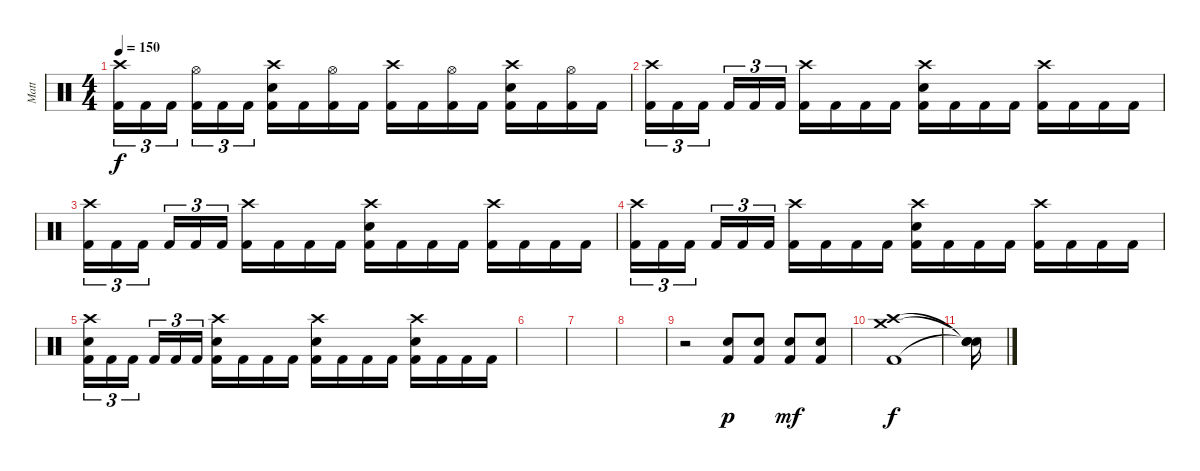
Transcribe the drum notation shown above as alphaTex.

\track ("Matt" "Matt") {instrument percussion}
\staff {score}
\articulation defaults
\ts (4 4)
\tempo 150
\clef neutral
\ks c
("Crash high (hit)" "Kick (hit) 2").16{tu (3 2) dy f} "Kick (hit) 2".16{tu (3 2)} "Kick (hit) 2".16{tu (3 2)} ("Hi-Hat (open)" "Kick (hit) 2").16{tu (3 2)} "Kick (hit) 2".16{tu (3 2)} "Kick (hit) 2".16{tu (3 2)} ("Crash high (hit)" "Snare (hit) 2" "Kick (hit) 2").16 "Kick (hit) 2".16 ("Hi-Hat (open)" "Kick (hit) 2").16 "Kick (hit) 2".16 ("Crash high (hit)" "Kick (hit) 2").16 "Kick (hit) 2".16 ("Hi-Hat (open)" "Kick (hit) 2").16 "Kick (hit) 2".16 ("Crash high (hit)" "Snare (hit) 2" "Kick (hit) 2").16 "Kick (hit) 2".16 ("Hi-Hat (open)" "Kick (hit) 2").16 "Kick (hit) 2".16 |
("Crash high (hit)" "Kick (hit) 2").16{tu (3 2)} "Kick (hit) 2".16{tu (3 2)} "Kick (hit) 2".16{tu (3 2)} "Kick (hit) 2".16{tu (3 2)} "Kick (hit) 2".16{tu (3 2)} "Kick (hit) 2".16{tu (3 2)} ("Crash high (hit)" "Kick (hit) 2").16 "Kick (hit) 2".16 "Kick (hit) 2".16 "Kick (hit) 2".16 ("Crash high (hit)" "Snare (hit) 2" "Kick (hit) 2").16 "Kick (hit) 2".16 "Kick (hit) 2".16 "Kick (hit) 2".16 ("Crash high (hit)" "Kick (hit) 2").16 "Kick (hit) 2".16 "Kick (hit) 2".16 "Kick (hit) 2".16 |
("Crash high (hit)" "Kick (hit) 2").16{tu (3 2)} "Kick (hit) 2".16{tu (3 2)} "Kick (hit) 2".16{tu (3 2)} "Kick (hit) 2".16{tu (3 2)} "Kick (hit) 2".16{tu (3 2)} "Kick (hit) 2".16{tu (3 2)} ("Crash high (hit)" "Kick (hit) 2").16 "Kick (hit) 2".16 "Kick (hit) 2".16 "Kick (hit) 2".16 ("Crash high (hit)" "Snare (hit) 2" "Kick (hit) 2").16 "Kick (hit) 2".16 "Kick (hit) 2".16 "Kick (hit) 2".16 ("Crash high (hit)" "Kick (hit) 2").16 "Kick (hit) 2".16 "Kick (hit) 2".16 "Kick (hit) 2".16 |
("Crash high (hit)" "Kick (hit) 2").16{tu (3 2)} "Kick (hit) 2".16{tu (3 2)} "Kick (hit) 2".16{tu (3 2)} "Kick (hit) 2".16{tu (3 2)} "Kick (hit) 2".16{tu (3 2)} "Kick (hit) 2".16{tu (3 2)} ("Crash high (hit)" "Kick (hit) 2").16 "Kick (hit) 2".16 "Kick (hit) 2".16 "Kick (hit) 2".16 ("Crash high (hit)" "Snare (hit) 2" "Kick (hit) 2").16 "Kick (hit) 2".16 "Kick (hit) 2".16 "Kick (hit) 2".16 ("Crash high (hit)" "Kick (hit) 2").16 "Kick (hit) 2".16 "Kick (hit) 2".16 "Kick (hit) 2".16 |
("Crash high (hit)" "Snare (hit) 2" "Kick (hit) 2").16{tu (3 2)} "Kick (hit) 2".16{tu (3 2)} "Kick (hit) 2".16{tu (3 2)} "Kick (hit) 2".16{tu (3 2)} "Kick (hit) 2".16{tu (3 2)} "Kick (hit) 2".16{tu (3 2)} ("Crash high (hit)" "Snare (hit) 2" "Kick (hit) 2").16 "Kick (hit) 2".16 "Kick (hit) 2".16 "Kick (hit) 2".16 ("Crash high (hit)" "Snare (hit) 2" "Kick (hit) 2").16 "Kick (hit) 2".16 "Kick (hit) 2".16 "Kick (hit) 2".16 ("Crash high (hit)" "Snare (hit) 2" "Kick (hit) 2").16 "Kick (hit) 2".16 "Kick (hit) 2".16 "Kick (hit) 2".16 |
|
|
|
r.2 ("Electric Snare (hit)" "Kick (hit) 2").8{dy p} ("Electric Snare (hit)" "Kick (hit) 2").8 ("Electric Snare (hit)" "Kick (hit) 2").8{dy mf} ("Electric Snare (hit)" "Kick (hit) 2").8 |
("Crash high (hit)" "Crash medium (hit)" "Kick (hit) 2").1{dy f} |
("Snare (hit)"{t} "Snare (hit)"{t} "Snare (hit)"{t}).16
